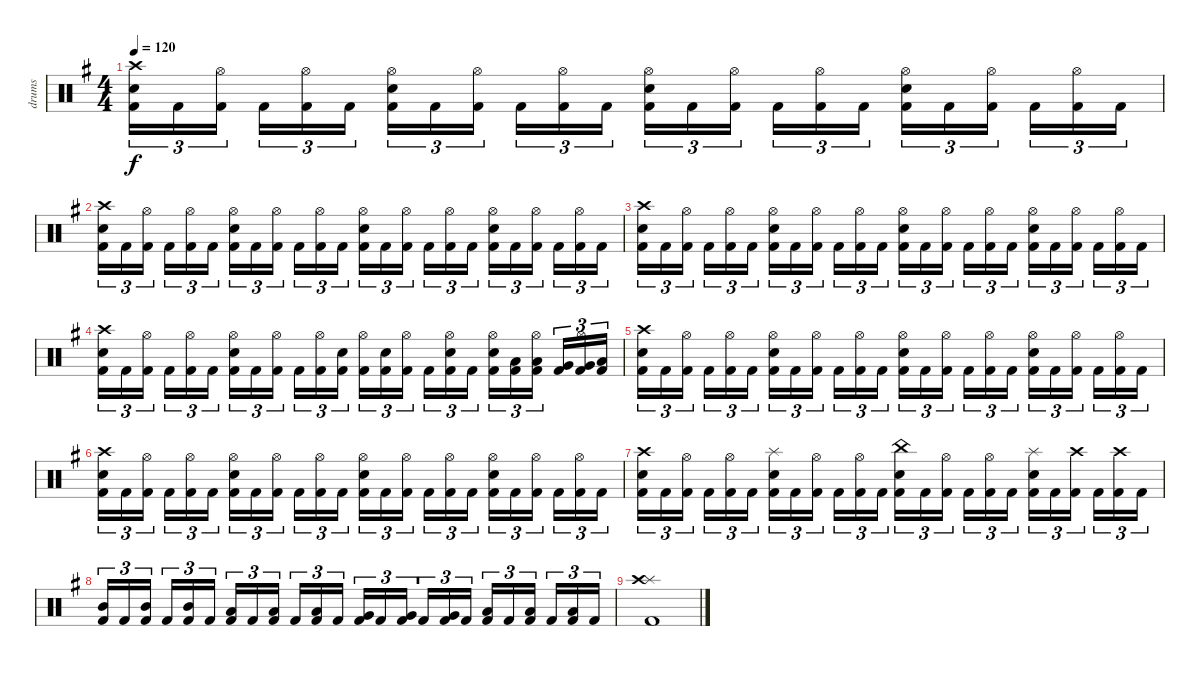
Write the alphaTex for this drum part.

\track ("drums" "drums") {instrument percussion}
\staff {score}
\articulation defaults
\ts (4 4)
\tempo 120
\clef neutral
\ks eminor
("Kick (hit) 2" "Electric Snare (hit)" "Crash high (hit)").16{tu (3 2) dy f} "Kick (hit) 2".16{tu (3 2)} ("Kick (hit) 2" "Hi-Hat (open)").16{tu (3 2) beam splitsecondary} "Kick (hit) 2".16{tu (3 2)} ("Kick (hit) 2" "Hi-Hat (open)").16{tu (3 2)} "Kick (hit) 2".16{tu (3 2)} ("Kick (hit) 2" "Electric Snare (hit)" "Hi-Hat (open)").16{tu (3 2)} "Kick (hit) 2".16{tu (3 2)} ("Kick (hit) 2" "Hi-Hat (open)").16{tu (3 2) beam splitsecondary} "Kick (hit) 2".16{tu (3 2)} ("Kick (hit) 2" "Hi-Hat (open)").16{tu (3 2)} "Kick (hit) 2".16{tu (3 2)} ("Kick (hit) 2" "Electric Snare (hit)" "Hi-Hat (open)").16{tu (3 2)} "Kick (hit) 2".16{tu (3 2)} ("Kick (hit) 2" "Hi-Hat (open)").16{tu (3 2) beam splitsecondary} "Kick (hit) 2".16{tu (3 2)} ("Kick (hit) 2" "Hi-Hat (open)").16{tu (3 2)} "Kick (hit) 2".16{tu (3 2)} ("Kick (hit) 2" "Electric Snare (hit)" "Hi-Hat (open)").16{tu (3 2)} "Kick (hit) 2".16{tu (3 2)} ("Kick (hit) 2" "Hi-Hat (open)").16{tu (3 2) beam splitsecondary} "Kick (hit) 2".16{tu (3 2)} ("Kick (hit) 2" "Hi-Hat (open)").16{tu (3 2)} "Kick (hit) 2".16{tu (3 2)} |
("Kick (hit) 2" "Electric Snare (hit)" "Crash high (hit)").16{tu (3 2)} "Kick (hit) 2".16{tu (3 2)} ("Kick (hit) 2" "Hi-Hat (open)").16{tu (3 2) beam splitsecondary} "Kick (hit) 2".16{tu (3 2)} ("Kick (hit) 2" "Hi-Hat (open)").16{tu (3 2)} "Kick (hit) 2".16{tu (3 2)} ("Kick (hit) 2" "Electric Snare (hit)" "Hi-Hat (open)").16{tu (3 2)} "Kick (hit) 2".16{tu (3 2)} ("Kick (hit) 2" "Hi-Hat (open)").16{tu (3 2) beam splitsecondary} "Kick (hit) 2".16{tu (3 2)} ("Kick (hit) 2" "Hi-Hat (open)").16{tu (3 2)} "Kick (hit) 2".16{tu (3 2)} ("Kick (hit) 2" "Electric Snare (hit)" "Hi-Hat (open)").16{tu (3 2)} "Kick (hit) 2".16{tu (3 2)} ("Kick (hit) 2" "Hi-Hat (open)").16{tu (3 2) beam splitsecondary} "Kick (hit) 2".16{tu (3 2)} ("Kick (hit) 2" "Hi-Hat (open)").16{tu (3 2)} "Kick (hit) 2".16{tu (3 2)} ("Kick (hit) 2" "Electric Snare (hit)" "Hi-Hat (open)").16{tu (3 2)} "Kick (hit) 2".16{tu (3 2)} ("Kick (hit) 2" "Hi-Hat (open)").16{tu (3 2) beam splitsecondary} "Kick (hit) 2".16{tu (3 2)} ("Kick (hit) 2" "Hi-Hat (open)").16{tu (3 2)} "Kick (hit) 2".16{tu (3 2)} |
("Kick (hit) 2" "Electric Snare (hit)" "Crash high (hit)").16{tu (3 2)} "Kick (hit) 2".16{tu (3 2)} ("Kick (hit) 2" "Hi-Hat (open)").16{tu (3 2) beam splitsecondary} "Kick (hit) 2".16{tu (3 2)} ("Kick (hit) 2" "Hi-Hat (open)").16{tu (3 2)} "Kick (hit) 2".16{tu (3 2)} ("Kick (hit) 2" "Electric Snare (hit)" "Hi-Hat (open)").16{tu (3 2)} "Kick (hit) 2".16{tu (3 2)} ("Kick (hit) 2" "Hi-Hat (open)").16{tu (3 2) beam splitsecondary} "Kick (hit) 2".16{tu (3 2)} ("Kick (hit) 2" "Hi-Hat (open)").16{tu (3 2)} "Kick (hit) 2".16{tu (3 2)} ("Kick (hit) 2" "Electric Snare (hit)" "Hi-Hat (open)").16{tu (3 2)} "Kick (hit) 2".16{tu (3 2)} ("Kick (hit) 2" "Hi-Hat (open)").16{tu (3 2) beam splitsecondary} "Kick (hit) 2".16{tu (3 2)} ("Kick (hit) 2" "Hi-Hat (open)").16{tu (3 2)} "Kick (hit) 2".16{tu (3 2)} ("Kick (hit) 2" "Electric Snare (hit)" "Hi-Hat (open)").16{tu (3 2)} "Kick (hit) 2".16{tu (3 2)} ("Kick (hit) 2" "Hi-Hat (open)").16{tu (3 2) beam splitsecondary} "Kick (hit) 2".16{tu (3 2)} ("Kick (hit) 2" "Hi-Hat (open)").16{tu (3 2)} "Kick (hit) 2".16{tu (3 2)} |
("Kick (hit) 2" "Electric Snare (hit)" "Crash high (hit)").16{tu (3 2)} "Kick (hit) 2".16{tu (3 2)} ("Kick (hit) 2" "Hi-Hat (open)").16{tu (3 2) beam splitsecondary} "Kick (hit) 2".16{tu (3 2)} ("Kick (hit) 2" "Hi-Hat (open)").16{tu (3 2)} "Kick (hit) 2".16{tu (3 2)} ("Kick (hit) 2" "Electric Snare (hit)" "Hi-Hat (open)").16{tu (3 2)} "Kick (hit) 2".16{tu (3 2)} ("Kick (hit) 2" "Hi-Hat (open)").16{tu (3 2) beam splitsecondary} "Kick (hit) 2".16{tu (3 2)} ("Kick (hit) 2" "Hi-Hat (open)").16{tu (3 2)} ("Kick (hit) 2" "Electric Snare (hit)").16{tu (3 2)} ("Kick (hit) 2" "Hi-Hat (open)").16{tu (3 2)} ("Kick (hit) 2" "Electric Snare (hit)").16{tu (3 2)} ("Kick (hit) 2" "Hi-Hat (open)").16{tu (3 2) beam splitsecondary} "Kick (hit) 2".16{tu (3 2)} ("Kick (hit) 2" "Electric Snare (hit)" "Hi-Hat (open)").16{tu (3 2)} "Kick (hit) 2".16{tu (3 2)} ("Kick (hit) 2" "Electric Snare (hit)" "Hi-Hat (open)").16{tu (3 2)} ("Kick (hit) 2" "Low Tom (hit)").16{tu (3 2)} ("Kick (hit) 2" "Low Tom (hit)" "Hi-Hat (open)").16{tu (3 2) beam splitsecondary} ("Kick (hit) 2" "Very Low Tom (hit)").16{tu (3 2)} ("Kick (hit) 2" "Very Low Tom (hit)" "Hi-Hat (open)").16{tu (3 2)} ("Kick (hit) 2" "Low Floor Tom (hit)").16{tu (3 2)} |
("Kick (hit) 2" "Electric Snare (hit)" "Crash high (hit)").16{tu (3 2)} "Kick (hit) 2".16{tu (3 2)} ("Kick (hit) 2" "Hi-Hat (open)").16{tu (3 2) beam splitsecondary} "Kick (hit) 2".16{tu (3 2)} ("Kick (hit) 2" "Hi-Hat (open)").16{tu (3 2)} "Kick (hit) 2".16{tu (3 2)} ("Kick (hit) 2" "Electric Snare (hit)" "Hi-Hat (open)").16{tu (3 2)} "Kick (hit) 2".16{tu (3 2)} ("Kick (hit) 2" "Hi-Hat (open)").16{tu (3 2) beam splitsecondary} "Kick (hit) 2".16{tu (3 2)} ("Kick (hit) 2" "Hi-Hat (open)").16{tu (3 2)} "Kick (hit) 2".16{tu (3 2)} ("Kick (hit) 2" "Electric Snare (hit)" "Hi-Hat (open)").16{tu (3 2)} "Kick (hit) 2".16{tu (3 2)} ("Kick (hit) 2" "Hi-Hat (open)").16{tu (3 2) beam splitsecondary} "Kick (hit) 2".16{tu (3 2)} ("Kick (hit) 2" "Hi-Hat (open)").16{tu (3 2)} "Kick (hit) 2".16{tu (3 2)} ("Kick (hit) 2" "Electric Snare (hit)" "Hi-Hat (open)").16{tu (3 2)} "Kick (hit) 2".16{tu (3 2)} ("Kick (hit) 2" "Hi-Hat (open)").16{tu (3 2) beam splitsecondary} "Kick (hit) 2".16{tu (3 2)} ("Kick (hit) 2" "Hi-Hat (open)").16{tu (3 2)} "Kick (hit) 2".16{tu (3 2)} |
("Kick (hit) 2" "Electric Snare (hit)" "Crash high (hit)").16{tu (3 2)} "Kick (hit) 2".16{tu (3 2)} ("Kick (hit) 2" "Hi-Hat (open)").16{tu (3 2) beam splitsecondary} "Kick (hit) 2".16{tu (3 2)} ("Kick (hit) 2" "Hi-Hat (open)").16{tu (3 2)} "Kick (hit) 2".16{tu (3 2)} ("Kick (hit) 2" "Electric Snare (hit)" "Hi-Hat (open)").16{tu (3 2)} "Kick (hit) 2".16{tu (3 2)} ("Kick (hit) 2" "Hi-Hat (open)").16{tu (3 2) beam splitsecondary} "Kick (hit) 2".16{tu (3 2)} ("Kick (hit) 2" "Hi-Hat (open)").16{tu (3 2)} "Kick (hit) 2".16{tu (3 2)} ("Kick (hit) 2" "Electric Snare (hit)" "Hi-Hat (open)").16{tu (3 2)} "Kick (hit) 2".16{tu (3 2)} ("Kick (hit) 2" "Hi-Hat (open)").16{tu (3 2) beam splitsecondary} "Kick (hit) 2".16{tu (3 2)} ("Kick (hit) 2" "Hi-Hat (open)").16{tu (3 2)} "Kick (hit) 2".16{tu (3 2)} ("Kick (hit) 2" "Electric Snare (hit)" "Hi-Hat (open)").16{tu (3 2)} "Kick (hit) 2".16{tu (3 2)} ("Kick (hit) 2" "Hi-Hat (open)").16{tu (3 2) beam splitsecondary} "Kick (hit) 2".16{tu (3 2)} ("Kick (hit) 2" "Hi-Hat (open)").16{tu (3 2)} "Kick (hit) 2".16{tu (3 2)} |
("Kick (hit) 2" "Electric Snare (hit)" "Crash high (hit)").16{tu (3 2)} "Kick (hit) 2".16{tu (3 2)} ("Kick (hit) 2" "Hi-Hat (open)").16{tu (3 2) beam splitsecondary} "Kick (hit) 2".16{tu (3 2)} ("Kick (hit) 2" "Hi-Hat (open)").16{tu (3 2)} "Kick (hit) 2".16{tu (3 2)} ("Kick (hit) 2" "Electric Snare (hit)" "Splash (hit)").16{tu (3 2)} "Kick (hit) 2".16{tu (3 2)} ("Kick (hit) 2" "Hi-Hat (open)").16{tu (3 2) beam splitsecondary} "Kick (hit) 2".16{tu (3 2)} ("Kick (hit) 2" "Hi-Hat (open)").16{tu (3 2)} "Kick (hit) 2".16{tu (3 2)} ("Kick (hit) 2" "Electric Snare (hit)" "China (hit)").16{tu (3 2)} "Kick (hit) 2".16{tu (3 2)} ("Kick (hit) 2" "Hi-Hat (open)").16{tu (3 2) beam splitsecondary} "Kick (hit) 2".16{tu (3 2)} ("Kick (hit) 2" "Hi-Hat (open)").16{tu (3 2)} "Kick (hit) 2".16{tu (3 2)} ("Kick (hit) 2" "Electric Snare (hit)" "Splash (hit)").16{tu (3 2)} "Kick (hit) 2".16{tu (3 2)} ("Kick (hit) 2" "Crash high (hit)").16{tu (3 2) beam splitsecondary} "Kick (hit) 2".16{tu (3 2)} ("Kick (hit) 2" "Crash high (hit)").16{tu (3 2)} "Kick (hit) 2".16{tu (3 2)} |
("Kick (hit) 2" "Mid Tom (hit)").16{tu (3 2)} "Kick (hit) 2".16{tu (3 2)} ("Kick (hit) 2" "Mid Tom (hit)").16{tu (3 2) beam splitsecondary} "Kick (hit) 2".16{tu (3 2)} ("Kick (hit) 2" "Mid Tom (hit)").16{tu (3 2)} "Kick (hit) 2".16{tu (3 2)} ("Kick (hit) 2" "Low Tom (hit)").16{tu (3 2)} "Kick (hit) 2".16{tu (3 2)} ("Kick (hit) 2" "Low Tom (hit)").16{tu (3 2) beam splitsecondary} "Kick (hit) 2".16{tu (3 2)} ("Kick (hit) 2" "Low Tom (hit)").16{tu (3 2)} "Kick (hit) 2".16{tu (3 2)} ("Kick (hit) 2" "Very Low Tom (hit)").16{tu (3 2)} "Kick (hit) 2".16{tu (3 2)} ("Kick (hit) 2" "Very Low Tom (hit)").16{tu (3 2) beam splitsecondary} "Kick (hit) 2".16{tu (3 2)} ("Kick (hit) 2" "Very Low Tom (hit)").16{tu (3 2)} "Kick (hit) 2".16{tu (3 2)} ("Kick (hit) 2" "Low Floor Tom (hit)").16{tu (3 2)} "Kick (hit) 2".16{tu (3 2)} ("Kick (hit) 2" "Low Floor Tom (hit)").16{tu (3 2) beam splitsecondary} "Kick (hit) 2".16{tu (3 2)} ("Kick (hit) 2" "Low Floor Tom (hit)").16{tu (3 2)} "Kick (hit) 2".16{tu (3 2)} |
("Kick (hit) 2" "Splash (hit)" "Crash high (hit)").1
